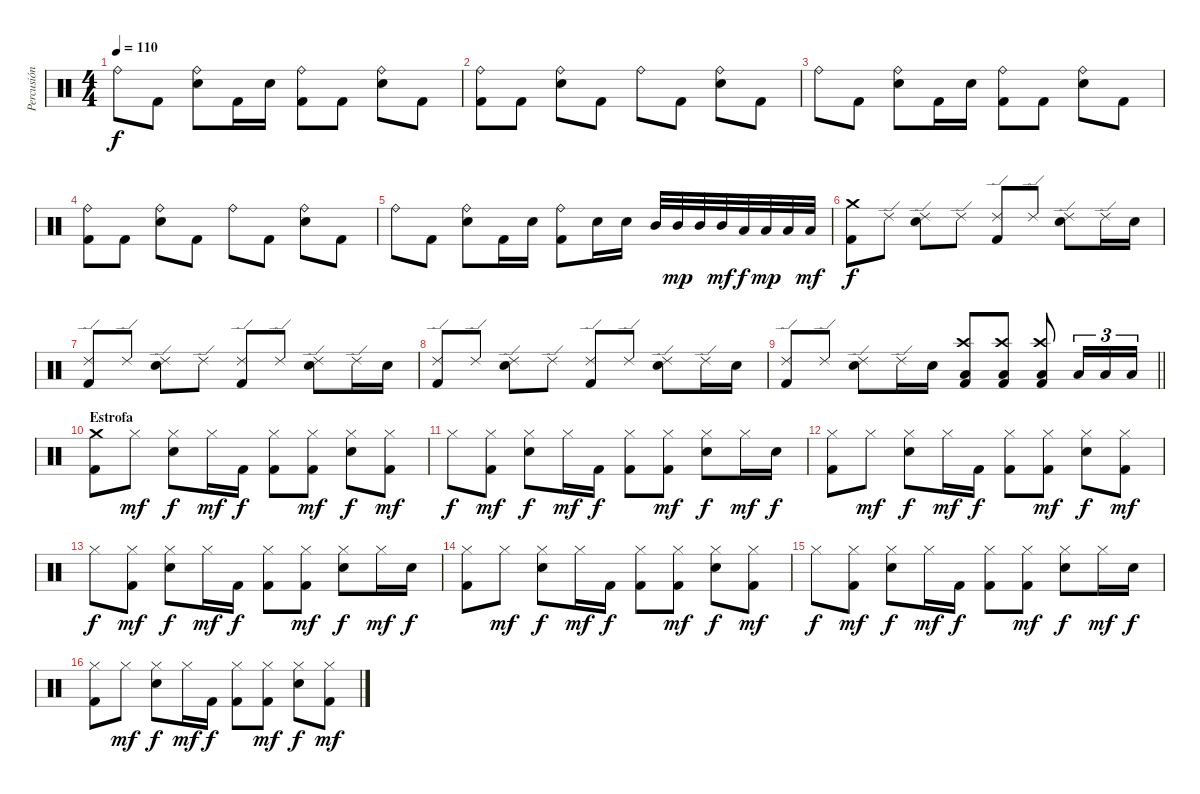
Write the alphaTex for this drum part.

\track ("Percusión" "Percusión") {instrument percussion}
\staff {score}
\articulation defaults
\ts (4 4)
\tempo 110
\clef neutral
\ks c "Ride (bell)".8{dy f} "Kick (hit) 2".8
("Ride (bell)" "Electric Snare (hit)").8 "Kick (hit) 2".16 "Electric Snare (hit)".16 ("Ride (bell)" "Kick (hit) 2").8 "Kick (hit) 2".8 ("Ride (bell)" "Electric Snare (hit)").8 "Kick (hit) 2".8 |
("Ride (bell)" "Kick (hit) 2").8 "Kick (hit) 2".8 ("Ride (bell)" "Electric Snare (hit)").8 "Kick (hit) 2".8 "Ride (bell)".8 "Kick (hit) 2".8 ("Ride (bell)" "Electric Snare (hit)").8 "Kick (hit) 2".8 |
"Ride (bell)".8 "Kick (hit) 2".8 ("Ride (bell)" "Electric Snare (hit)").8 "Kick (hit) 2".16 "Electric Snare (hit)".16 ("Ride (bell)" "Kick (hit) 2").8 "Kick (hit) 2".8 ("Ride (bell)" "Electric Snare (hit)").8 "Kick (hit) 2".8 |
("Ride (bell)" "Kick (hit) 2").8 "Kick (hit) 2".8 ("Ride (bell)" "Electric Snare (hit)").8 "Kick (hit) 2".8 "Ride (bell)".8 "Kick (hit) 2".8 ("Ride (bell)" "Electric Snare (hit)").8 "Kick (hit) 2".8 |
"Ride (bell)".8 "Kick (hit) 2".8 ("Ride (bell)" "Electric Snare (hit)").8 "Kick (hit) 2".16 "Electric Snare (hit)".16 ("Ride (bell)" "Kick (hit) 2").8 "Electric Snare (hit)".16 "Electric Snare (hit)".16 "Mid Tom (hit)".32 "Mid Tom (hit)".32{dy mp} "Mid Tom (hit)".32 "Mid Tom (hit)".32{dy mf} "Low Tom (hit)".32{dy f} "Low Tom (hit)".32{dy mp} "Low Tom (hit)".32 "Low Tom (hit)".32{dy mf} |
("Crash medium (hit)" "Kick (hit) 2").8{dy f} "Ride (edge) 2".8 ("Ride (edge) 2" "Electric Snare (hit)").8 "Ride (edge) 2".8 ("Ride (edge) 2" "Kick (hit) 2").8 "Ride (edge) 2".8 ("Ride (edge) 2" "Electric Snare (hit)").8 "Ride (edge) 2".16 "Electric Snare (hit)".16 |
("Ride (edge) 2" "Kick (hit) 2").8 "Ride (edge) 2".8 ("Ride (edge) 2" "Electric Snare (hit)").8 "Ride (edge) 2".8 ("Ride (edge) 2" "Kick (hit) 2").8 "Ride (edge) 2".8 ("Ride (edge) 2" "Electric Snare (hit)").8 "Ride (edge) 2".16 "Electric Snare (hit)".16 |
("Ride (edge) 2" "Kick (hit) 2").8 "Ride (edge) 2".8 ("Ride (edge) 2" "Electric Snare (hit)").8 "Ride (edge) 2".8 ("Ride (edge) 2" "Kick (hit) 2").8 "Ride (edge) 2".8 ("Ride (edge) 2" "Electric Snare (hit)").8 "Ride (edge) 2".16 "Electric Snare (hit)".16 |
\barLineRight lightlight
("Ride (edge) 2" "Kick (hit) 2").8 "Ride (edge) 2".8 ("Ride (edge) 2" "Electric Snare (hit)").8 "Ride (edge) 2".16 "Electric Snare (hit)".16 ("Crash high (hit)" "Low Floor Tom (hit)" "Kick (hit) 2").8 ("Crash high (hit)" "Low Floor Tom (hit)" "Kick (hit) 2").8 ("Crash high (hit)" "Low Floor Tom (hit)" "Kick (hit) 2").8 "Low Tom (hit)".16{tu (3 2)} "Low Tom (hit)".16{tu (3 2)} "Low Tom (hit)".16{tu (3 2)} |
\section ("" "Estrofa")
("Crash medium (hit)" "Kick (hit) 2").8 "Hi-Hat (closed)".8{dy mf} ("Hi-Hat (closed)" "Electric Snare (hit)").8{dy f} "Hi-Hat (closed)".16{dy mf} "Kick (hit) 2".16{dy f} ("Hi-Hat (closed)" "Kick (hit) 2").8 ("Hi-Hat (closed)" "Kick (hit) 2").8{dy mf} ("Hi-Hat (closed)" "Electric Snare (hit)").8{dy f} ("Hi-Hat (closed)" "Kick (hit) 2").8{dy mf} |
"Hi-Hat (closed)".8{dy f} ("Hi-Hat (closed)" "Kick (hit) 2").8{dy mf} ("Hi-Hat (closed)" "Electric Snare (hit)").8{dy f} "Hi-Hat (closed)".16{dy mf} "Kick (hit) 2".16{dy f} ("Hi-Hat (closed)" "Kick (hit) 2").8 ("Hi-Hat (closed)" "Kick (hit) 2").8{dy mf} ("Hi-Hat (closed)" "Electric Snare (hit)").8{dy f} "Hi-Hat (closed)".16{dy mf} "Electric Snare (hit)".16{dy f} |
("Hi-Hat (closed)" "Kick (hit) 2").8 "Hi-Hat (closed)".8{dy mf} ("Hi-Hat (closed)" "Electric Snare (hit)").8{dy f} "Hi-Hat (closed)".16{dy mf} "Kick (hit) 2".16{dy f} ("Hi-Hat (closed)" "Kick (hit) 2").8 ("Hi-Hat (closed)" "Kick (hit) 2").8{dy mf} ("Hi-Hat (closed)" "Electric Snare (hit)").8{dy f} ("Hi-Hat (closed)" "Kick (hit) 2").8{dy mf} |
"Hi-Hat (closed)".8{dy f} ("Hi-Hat (closed)" "Kick (hit) 2").8{dy mf} ("Hi-Hat (closed)" "Electric Snare (hit)").8{dy f} "Hi-Hat (closed)".16{dy mf} "Kick (hit) 2".16{dy f} ("Hi-Hat (closed)" "Kick (hit) 2").8 ("Hi-Hat (closed)" "Kick (hit) 2").8{dy mf} ("Hi-Hat (closed)" "Electric Snare (hit)").8{dy f} "Hi-Hat (closed)".16{dy mf} "Electric Snare (hit)".16{dy f} |
("Hi-Hat (closed)" "Kick (hit) 2").8 "Hi-Hat (closed)".8{dy mf} ("Hi-Hat (closed)" "Electric Snare (hit)").8{dy f} "Hi-Hat (closed)".16{dy mf} "Kick (hit) 2".16{dy f} ("Hi-Hat (closed)" "Kick (hit) 2").8 ("Hi-Hat (closed)" "Kick (hit) 2").8{dy mf} ("Hi-Hat (closed)" "Electric Snare (hit)").8{dy f} ("Hi-Hat (closed)" "Kick (hit) 2").8{dy mf} |
"Hi-Hat (closed)".8{dy f} ("Hi-Hat (closed)" "Kick (hit) 2").8{dy mf} ("Hi-Hat (closed)" "Electric Snare (hit)").8{dy f} "Hi-Hat (closed)".16{dy mf} "Kick (hit) 2".16{dy f} ("Hi-Hat (closed)" "Kick (hit) 2").8 ("Hi-Hat (closed)" "Kick (hit) 2").8{dy mf} ("Hi-Hat (closed)" "Electric Snare (hit)").8{dy f} "Hi-Hat (closed)".16{dy mf} "Electric Snare (hit)".16{dy f} |
("Hi-Hat (closed)" "Kick (hit) 2").8 "Hi-Hat (closed)".8{dy mf} ("Hi-Hat (closed)" "Electric Snare (hit)").8{dy f} "Hi-Hat (closed)".16{dy mf} "Kick (hit) 2".16{dy f} ("Hi-Hat (closed)" "Kick (hit) 2").8 ("Hi-Hat (closed)" "Kick (hit) 2").8{dy mf} ("Hi-Hat (closed)" "Electric Snare (hit)").8{dy f} ("Hi-Hat (closed)" "Kick (hit) 2").8{dy mf}
